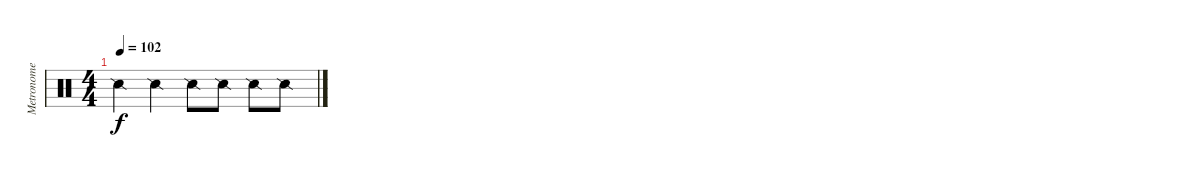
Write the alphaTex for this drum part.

\track ("Metronome" "Metronome") {instrument percussion}
\staff {score}
\articulation defaults
\ts (4 4)
\tempo 102
\clef neutral
\ks c "Snare (side stick) 2".4{dy f} "Snare (side stick) 2".4 "Snare (side stick) 2".8 "Snare (side stick) 2".8 "Snare (side stick) 2".8 "Snare (side stick) 2".8
